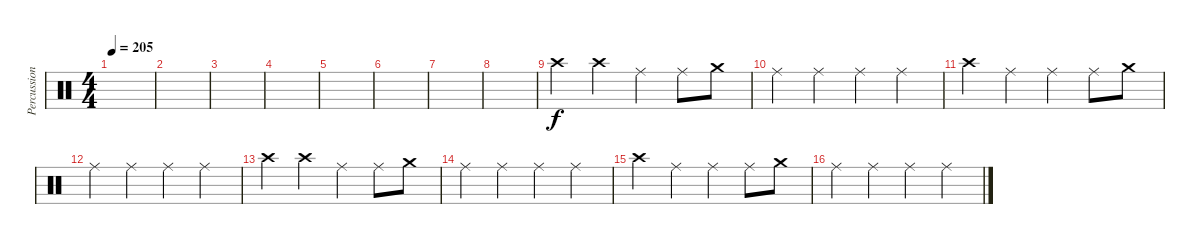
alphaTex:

\track ("Percussion" "Percussion") {instrument percussion}
\staff {score}
\articulation defaults
\ts (4 4)
\tempo 205
\clef neutral
\ks c
|
|
|
|
|
|
|
|
"Crash high (hit)".4 "Crash high (hit)".4 "Ride (middle)".4 "Ride (middle)".8 "Crash medium (hit)".8 |
"Ride (middle)".4 "Ride (middle)".4 "Ride (middle)".4 "Ride (middle)".4 |
"Crash high (hit)".4 "Ride (middle)".4 "Ride (middle)".4 "Ride (middle)".8 "Crash medium (hit)".8 |
"Ride (middle)".4 "Ride (middle)".4 "Ride (middle)".4 "Ride (middle)".4 |
"Crash high (hit)".4 "Crash high (hit)".4 "Ride (middle)".4 "Ride (middle)".8 "Crash medium (hit)".8 |
"Ride (middle)".4 "Ride (middle)".4 "Ride (middle)".4 "Ride (middle)".4 |
"Crash high (hit)".4 "Ride (middle)".4 "Ride (middle)".4 "Ride (middle)".8 "Crash medium (hit)".8 |
"Ride (middle)".4 "Ride (middle)".4 "Ride (middle)".4 "Ride (middle)".4
